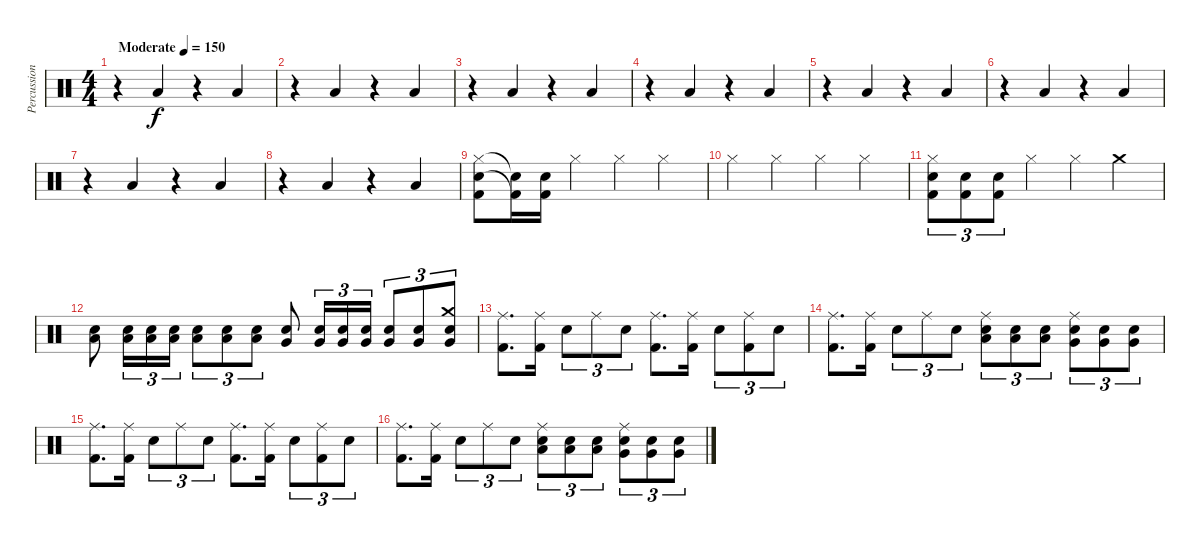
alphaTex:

\track ("Percussion" "Percussion") {instrument percussion}
\staff {score}
\articulation defaults
\ts (4 4)
\tempo (150 "Moderate")
\clef neutral
\ks c
r.4{dy f} "Low Tom (hit)".4 r.4 "Low Tom (hit)".4 |
r.4 "Low Tom (hit)".4 r.4 "Low Tom (hit)".4 |
r.4 "Low Tom (hit)".4 r.4 "Low Tom (hit)".4 |
r.4 "Low Tom (hit)".4 r.4 "Low Tom (hit)".4 |
r.4 "Low Tom (hit)".4 r.4 "Low Tom (hit)".4 |
r.4 "Low Tom (hit)".4 r.4 "Low Tom (hit)".4 |
r.4 "Low Tom (hit)".4 r.4 "Low Tom (hit)".4 |
r.4 "Low Tom (hit)".4 r.4 "Low Tom (hit)".4 |
("Hi-Hat (closed)" "Electric Snare (hit)" "Kick (hit) 2").8 ("Electric Snare (hit)"{t} "Kick (hit) 2"{t}).16 ("Electric Snare (hit)" "Kick (hit) 2").16 "Hi-Hat (closed)".4 "Hi-Hat (closed)".4 "Hi-Hat (closed)".4 |
"Hi-Hat (closed)".4 "Hi-Hat (closed)".4 "Hi-Hat (closed)".4 "Hi-Hat (closed)".4 |
("Hi-Hat (closed)" "Electric Snare (hit)" "Kick (hit) 2").8{tu (3 2)} ("Electric Snare (hit)" "Kick (hit) 2").8{tu (3 2)} ("Electric Snare (hit)" "Kick (hit) 2").8{tu (3 2)} "Hi-Hat (closed)".4 "Hi-Hat (closed)".4 "Crash medium (hit)".4 |
("Low Tom (hit)" "Electric Snare (hit)").8 ("Low Tom (hit)" "Electric Snare (hit)").16{tu (3 2)} ("Low Tom (hit)" "Electric Snare (hit)").16{tu (3 2)} ("Low Tom (hit)" "Electric Snare (hit)").16{tu (3 2)} ("Low Tom (hit)" "Electric Snare (hit)").8{tu (3 2)} ("Low Tom (hit)" "Electric Snare (hit)").8{tu (3 2)} ("Low Tom (hit)" "Electric Snare (hit)").8{tu (3 2)} ("Very Low Tom (hit)" "Electric Snare (hit)").8 ("Very Low Tom (hit)" "Electric Snare (hit)").16{tu (3 2)} ("Very Low Tom (hit)" "Electric Snare (hit)").16{tu (3 2)} ("Very Low Tom (hit)" "Electric Snare (hit)").16{tu (3 2)} ("Very Low Tom (hit)" "Electric Snare (hit)").8{tu (3 2)} ("Very Low Tom (hit)" "Electric Snare (hit)").8{tu (3 2)} ("Crash medium (hit)" "Very Low Tom (hit)" "Electric Snare (hit)").8{tu (3 2)} |
("Ride (middle)" "Kick (hit) 2").8{d} ("Ride (middle)" "Kick (hit) 2").16 "Electric Snare (hit)".8{tu (3 2)} "Ride (middle)".8{tu (3 2)} "Electric Snare (hit)".8{tu (3 2)} ("Ride (middle)" "Kick (hit) 2").8{d} ("Ride (middle)" "Kick (hit) 2").16 "Electric Snare (hit)".8{tu (3 2)} ("Ride (middle)" "Kick (hit) 2").8{tu (3 2)} "Electric Snare (hit)".8{tu (3 2)} |
("Ride (middle)" "Kick (hit) 2").8{d} ("Ride (middle)" "Kick (hit) 2").16 "Electric Snare (hit)".8{tu (3 2)} "Ride (middle)".8{tu (3 2)} "Electric Snare (hit)".8{tu (3 2)} ("Ride (middle)" "Electric Snare (hit)" "Low Tom (hit)").8{tu (3 2)} ("Electric Snare (hit)" "Low Tom (hit)").8{tu (3 2)} ("Electric Snare (hit)" "Low Tom (hit)").8{tu (3 2)} ("Ride (middle)" "Electric Snare (hit)" "Very Low Tom (hit)").8{tu (3 2)} ("Electric Snare (hit)" "Very Low Tom (hit)").8{tu (3 2)} ("Electric Snare (hit)" "Very Low Tom (hit)").8{tu (3 2)} |
("Ride (middle)" "Kick (hit) 2").8{d} ("Ride (middle)" "Kick (hit) 2").16 "Electric Snare (hit)".8{tu (3 2)} "Ride (middle)".8{tu (3 2)} "Electric Snare (hit)".8{tu (3 2)} ("Ride (middle)" "Kick (hit) 2").8{d} ("Ride (middle)" "Kick (hit) 2").16 "Electric Snare (hit)".8{tu (3 2)} ("Ride (middle)" "Kick (hit) 2").8{tu (3 2)} "Electric Snare (hit)".8{tu (3 2)} |
("Ride (middle)" "Kick (hit) 2").8{d} ("Ride (middle)" "Kick (hit) 2").16 "Electric Snare (hit)".8{tu (3 2)} "Ride (middle)".8{tu (3 2)} "Electric Snare (hit)".8{tu (3 2)} ("Ride (middle)" "Electric Snare (hit)" "Low Tom (hit)").8{tu (3 2)} ("Electric Snare (hit)" "Low Tom (hit)").8{tu (3 2)} ("Electric Snare (hit)" "Low Tom (hit)").8{tu (3 2)} ("Ride (middle)" "Electric Snare (hit)" "Very Low Tom (hit)").8{tu (3 2)} ("Electric Snare (hit)" "Very Low Tom (hit)").8{tu (3 2)} ("Electric Snare (hit)" "Very Low Tom (hit)").8{tu (3 2)}
